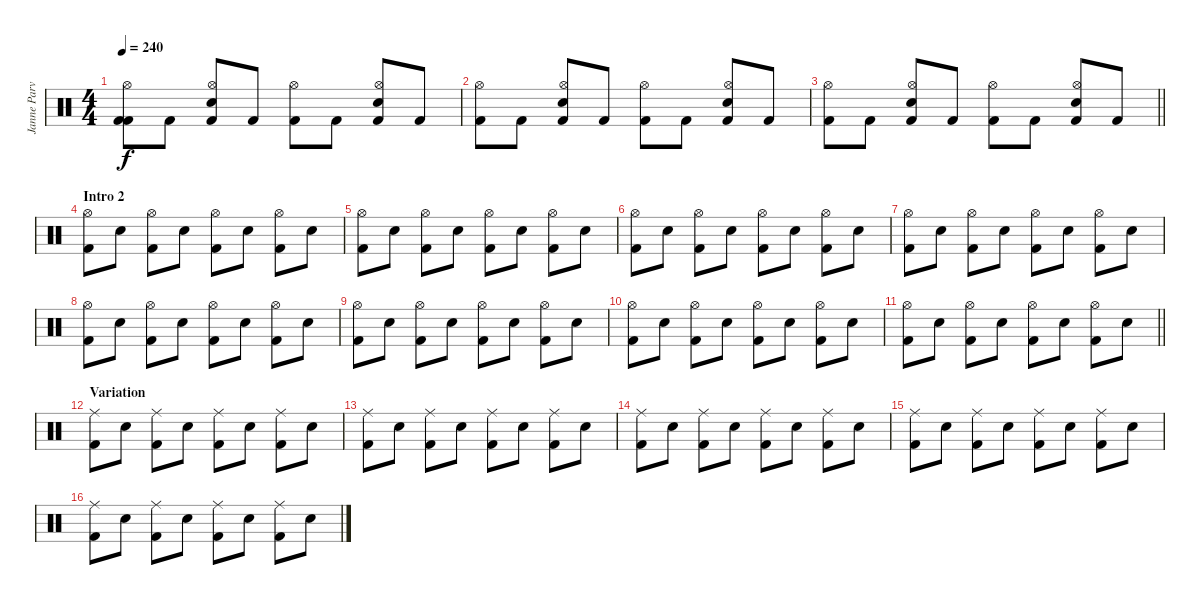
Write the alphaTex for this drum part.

\track ("Janne Parviainen" "Janne Parv") {instrument percussion}
\staff {score}
\articulation defaults
\ts (4 4)
\tempo 240
\clef neutral
\ks c
("Kick (hit) 2" "Hi-Hat (open)" "Kick (hit) 2").8{dy f} "Kick (hit) 2".8 ("Electric Snare (hit)" "Hi-Hat (open)" "Kick (hit) 2").8 "Kick (hit) 2".8 ("Kick (hit) 2" "Hi-Hat (open)").8 "Kick (hit) 2".8 ("Electric Snare (hit)" "Hi-Hat (open)" "Kick (hit) 2").8 "Kick (hit) 2".8 |
("Kick (hit) 2" "Hi-Hat (open)").8 "Kick (hit) 2".8 ("Electric Snare (hit)" "Hi-Hat (open)" "Kick (hit) 2").8 "Kick (hit) 2".8 ("Kick (hit) 2" "Hi-Hat (open)").8 "Kick (hit) 2".8 ("Electric Snare (hit)" "Hi-Hat (open)" "Kick (hit) 2").8 "Kick (hit) 2".8 |
\barLineRight lightlight
("Kick (hit) 2" "Hi-Hat (open)").8 "Kick (hit) 2".8 ("Electric Snare (hit)" "Hi-Hat (open)" "Kick (hit) 2").8 "Kick (hit) 2".8 ("Kick (hit) 2" "Hi-Hat (open)").8 "Kick (hit) 2".8 ("Electric Snare (hit)" "Hi-Hat (open)" "Kick (hit) 2").8 "Kick (hit) 2".8 |
\section ("" "Intro 2")
("Kick (hit) 2" "Hi-Hat (open)").8 "Electric Snare (hit)".8 ("Kick (hit) 2" "Hi-Hat (open)").8 "Electric Snare (hit)".8 ("Kick (hit) 2" "Hi-Hat (open)").8 "Electric Snare (hit)".8 ("Kick (hit) 2" "Hi-Hat (open)").8 "Electric Snare (hit)".8 |
("Kick (hit) 2" "Hi-Hat (open)").8 "Electric Snare (hit)".8 ("Kick (hit) 2" "Hi-Hat (open)").8 "Electric Snare (hit)".8 ("Kick (hit) 2" "Hi-Hat (open)").8 "Electric Snare (hit)".8 ("Kick (hit) 2" "Hi-Hat (open)").8 "Electric Snare (hit)".8 |
("Kick (hit) 2" "Hi-Hat (open)").8 "Electric Snare (hit)".8 ("Kick (hit) 2" "Hi-Hat (open)").8 "Electric Snare (hit)".8 ("Kick (hit) 2" "Hi-Hat (open)").8 "Electric Snare (hit)".8 ("Kick (hit) 2" "Hi-Hat (open)").8 "Electric Snare (hit)".8 |
("Kick (hit) 2" "Hi-Hat (open)").8 "Electric Snare (hit)".8 ("Kick (hit) 2" "Hi-Hat (open)").8 "Electric Snare (hit)".8 ("Kick (hit) 2" "Hi-Hat (open)").8 "Electric Snare (hit)".8 ("Kick (hit) 2" "Hi-Hat (open)").8 "Electric Snare (hit)".8 |
("Kick (hit) 2" "Hi-Hat (open)").8 "Electric Snare (hit)".8 ("Kick (hit) 2" "Hi-Hat (open)").8 "Electric Snare (hit)".8 ("Kick (hit) 2" "Hi-Hat (open)").8 "Electric Snare (hit)".8 ("Kick (hit) 2" "Hi-Hat (open)").8 "Electric Snare (hit)".8 |
("Kick (hit) 2" "Hi-Hat (open)").8 "Electric Snare (hit)".8 ("Kick (hit) 2" "Hi-Hat (open)").8 "Electric Snare (hit)".8 ("Kick (hit) 2" "Hi-Hat (open)").8 "Electric Snare (hit)".8 ("Kick (hit) 2" "Hi-Hat (open)").8 "Electric Snare (hit)".8 |
("Kick (hit) 2" "Hi-Hat (open)").8 "Electric Snare (hit)".8 ("Kick (hit) 2" "Hi-Hat (open)").8 "Electric Snare (hit)".8 ("Kick (hit) 2" "Hi-Hat (open)").8 "Electric Snare (hit)".8 ("Kick (hit) 2" "Hi-Hat (open)").8 "Electric Snare (hit)".8 |
\barLineRight lightlight
("Kick (hit) 2" "Hi-Hat (open)").8 "Electric Snare (hit)".8 ("Kick (hit) 2" "Hi-Hat (open)").8 "Electric Snare (hit)".8 ("Kick (hit) 2" "Hi-Hat (open)").8 "Electric Snare (hit)".8 ("Kick (hit) 2" "Hi-Hat (open)").8 "Electric Snare (hit)".8 |
\section ("" "Variation")
("Kick (hit) 2" "Ride (middle)").8 "Electric Snare (hit)".8 ("Kick (hit) 2" "Ride (middle)").8 "Electric Snare (hit)".8 ("Kick (hit) 2" "Ride (middle)").8 "Electric Snare (hit)".8 ("Kick (hit) 2" "Ride (middle)").8 "Electric Snare (hit)".8 |
("Kick (hit) 2" "Ride (middle)").8 "Electric Snare (hit)".8 ("Kick (hit) 2" "Ride (middle)").8 "Electric Snare (hit)".8 ("Kick (hit) 2" "Ride (middle)").8 "Electric Snare (hit)".8 ("Kick (hit) 2" "Ride (middle)").8 "Electric Snare (hit)".8 |
("Kick (hit) 2" "Ride (middle)").8 "Electric Snare (hit)".8 ("Kick (hit) 2" "Ride (middle)").8 "Electric Snare (hit)".8 ("Kick (hit) 2" "Ride (middle)").8 "Electric Snare (hit)".8 ("Kick (hit) 2" "Ride (middle)").8 "Electric Snare (hit)".8 |
("Kick (hit) 2" "Ride (middle)").8 "Electric Snare (hit)".8 ("Kick (hit) 2" "Ride (middle)").8 "Electric Snare (hit)".8 ("Kick (hit) 2" "Ride (middle)").8 "Electric Snare (hit)".8 ("Kick (hit) 2" "Ride (middle)").8 "Electric Snare (hit)".8 |
("Kick (hit) 2" "Ride (middle)").8 "Electric Snare (hit)".8 ("Kick (hit) 2" "Ride (middle)").8 "Electric Snare (hit)".8 ("Kick (hit) 2" "Ride (middle)").8 "Electric Snare (hit)".8 ("Kick (hit) 2" "Ride (middle)").8 "Electric Snare (hit)".8
